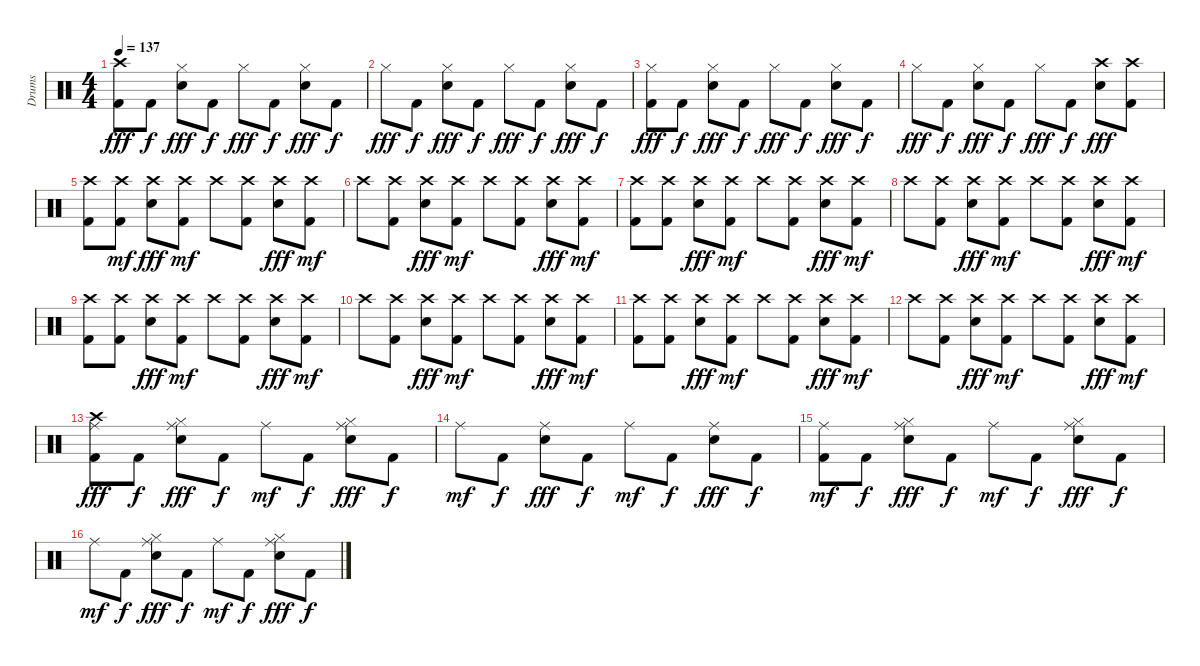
\track ("Drums" "Drums") {instrument percussion}
\staff {score}
\articulation defaults
\ts (4 4)
\tempo 137
\clef neutral
\ks c
("Crash high (hit)" "Kick (hit) 2").8{dy fff volume 11} "Kick (hit) 2".8{dy f} ("Hi-Hat (closed)" "Snare (hit) 2").8{dy fff} "Kick (hit) 2".8{dy f} "Hi-Hat (closed)".8{dy fff} "Kick (hit) 2".8{dy f} ("Hi-Hat (closed)" "Snare (hit) 2").8{dy fff} "Kick (hit) 2".8{dy f} |
"Hi-Hat (closed)".8{dy fff} "Kick (hit) 2".8{dy f} ("Hi-Hat (closed)" "Snare (hit) 2").8{dy fff} "Kick (hit) 2".8{dy f} "Hi-Hat (closed)".8{dy fff} "Kick (hit) 2".8{dy f} ("Hi-Hat (closed)" "Snare (hit) 2").8{dy fff} "Kick (hit) 2".8{dy f} |
("Hi-Hat (closed)" "Kick (hit) 2").8{dy fff volume 11} "Kick (hit) 2".8{dy f} ("Hi-Hat (closed)" "Snare (hit) 2").8{dy fff} "Kick (hit) 2".8{dy f} "Hi-Hat (closed)".8{dy fff} "Kick (hit) 2".8{dy f} ("Hi-Hat (closed)" "Snare (hit) 2").8{dy fff} "Kick (hit) 2".8{dy f} |
"Hi-Hat (closed)".8{dy fff} "Kick (hit) 2".8{dy f} ("Hi-Hat (closed)" "Snare (hit) 2").8{dy fff} "Kick (hit) 2".8{dy f} "Hi-Hat (closed)".8{dy fff} "Kick (hit) 2".8{dy f} ("Crash high (hit)" "Snare (hit) 2").8{dy fff} ("Crash high (hit)" "Kick (hit) 2").8 |
("Crash high (hit)" "Kick (hit) 2").8{volume 13} ("Crash high (hit)" "Kick (hit) 2").8{dy mf} ("Crash high (hit)" "Snare (hit) 2").8{dy fff} ("Crash high (hit)" "Kick (hit) 2").8{dy mf} "Crash high (hit)".8 ("Crash high (hit)" "Kick (hit) 2").8 ("Crash high (hit)" "Snare (hit) 2").8{dy fff} ("Crash high (hit)" "Kick (hit) 2").8{dy mf} |
"Crash high (hit)".8 ("Crash high (hit)" "Kick (hit) 2").8 ("Crash high (hit)" "Snare (hit) 2").8{dy fff} ("Crash high (hit)" "Kick (hit) 2").8{dy mf} "Crash high (hit)".8 ("Crash high (hit)" "Kick (hit) 2").8 ("Crash high (hit)" "Snare (hit) 2").8{dy fff} ("Crash high (hit)" "Kick (hit) 2").8{dy mf} |
("Crash high (hit)" "Kick (hit) 2").8 ("Crash high (hit)" "Kick (hit) 2").8 ("Crash high (hit)" "Snare (hit) 2").8{dy fff} ("Crash high (hit)" "Kick (hit) 2").8{dy mf} "Crash high (hit)".8 ("Crash high (hit)" "Kick (hit) 2").8 ("Crash high (hit)" "Snare (hit) 2").8{dy fff} ("Crash high (hit)" "Kick (hit) 2").8{dy mf} |
"Crash high (hit)".8 ("Crash high (hit)" "Kick (hit) 2").8 ("Crash high (hit)" "Snare (hit) 2").8{dy fff} ("Crash high (hit)" "Kick (hit) 2").8{dy mf} "Crash high (hit)".8 ("Crash high (hit)" "Kick (hit) 2").8 ("Crash high (hit)" "Snare (hit) 2").8{dy fff} ("Crash high (hit)" "Kick (hit) 2").8{dy mf} |
("Crash high (hit)" "Kick (hit) 2").8 ("Crash high (hit)" "Kick (hit) 2").8 ("Crash high (hit)" "Snare (hit) 2").8{dy fff} ("Crash high (hit)" "Kick (hit) 2").8{dy mf} "Crash high (hit)".8 ("Crash high (hit)" "Kick (hit) 2").8 ("Crash high (hit)" "Snare (hit) 2").8{dy fff} ("Crash high (hit)" "Kick (hit) 2").8{dy mf} |
"Crash high (hit)".8 ("Crash high (hit)" "Kick (hit) 2").8 ("Crash high (hit)" "Snare (hit) 2").8{dy fff} ("Crash high (hit)" "Kick (hit) 2").8{dy mf} "Crash high (hit)".8 ("Crash high (hit)" "Kick (hit) 2").8 ("Crash high (hit)" "Snare (hit) 2").8{dy fff} ("Crash high (hit)" "Kick (hit) 2").8{dy mf} |
("Crash high (hit)" "Kick (hit) 2").8 ("Crash high (hit)" "Kick (hit) 2").8 ("Crash high (hit)" "Snare (hit) 2").8{dy fff} ("Crash high (hit)" "Kick (hit) 2").8{dy mf} "Crash high (hit)".8 ("Crash high (hit)" "Kick (hit) 2").8 ("Crash high (hit)" "Snare (hit) 2").8{dy fff} ("Crash high (hit)" "Kick (hit) 2").8{dy mf} |
"Crash high (hit)".8 ("Crash high (hit)" "Kick (hit) 2").8 ("Crash high (hit)" "Snare (hit) 2").8{dy fff} ("Crash high (hit)" "Kick (hit) 2").8{dy mf} "Crash high (hit)".8 ("Crash high (hit)" "Kick (hit) 2").8 ("Crash high (hit)" "Snare (hit) 2").8{dy fff} ("Crash high (hit)" "Kick (hit) 2").8{dy mf} |
("Crash high (hit)" "Ride (middle)" "Kick (hit) 2").8{dy fff volume 13} "Kick (hit) 2".8{dy f} ("Hi-Hat (closed)" "Ride (middle)" "Snare (hit) 2").8{dy fff} "Kick (hit) 2".8{dy f} "Ride (middle)".8{dy mf} "Kick (hit) 2".8{dy f} ("Hi-Hat (closed)" "Ride (middle)" "Snare (hit) 2").8{dy fff} "Kick (hit) 2".8{dy f} |
"Ride (middle)".8{dy mf} "Kick (hit) 2".8{dy f} ("Ride (middle)" "Snare (hit) 2").8{dy fff} "Kick (hit) 2".8{dy f} "Ride (middle)".8{dy mf} "Kick (hit) 2".8{dy f} ("Ride (middle)" "Snare (hit) 2").8{dy fff} "Kick (hit) 2".8{dy f} |
("Ride (middle)" "Kick (hit) 2").8{dy mf} "Kick (hit) 2".8{dy f} ("Hi-Hat (closed)" "Ride (middle)" "Snare (hit) 2").8{dy fff} "Kick (hit) 2".8{dy f} "Ride (middle)".8{dy mf} "Kick (hit) 2".8{dy f} ("Hi-Hat (closed)" "Ride (middle)" "Snare (hit) 2").8{dy fff} "Kick (hit) 2".8{dy f} |
"Ride (middle)".8{dy mf} "Kick (hit) 2".8{dy f} ("Hi-Hat (closed)" "Ride (middle)" "Snare (hit) 2").8{dy fff} "Kick (hit) 2".8{dy f} "Ride (middle)".8{dy mf} "Kick (hit) 2".8{dy f} ("Hi-Hat (closed)" "Ride (middle)" "Snare (hit) 2").8{dy fff} "Kick (hit) 2".8{dy f}
